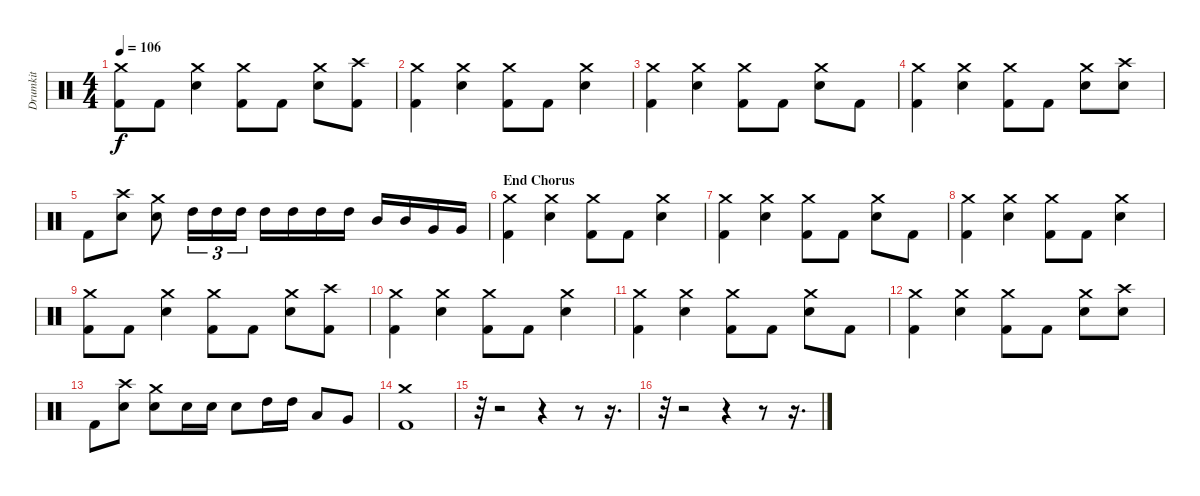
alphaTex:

\track ("Drumkit" "Drumkit") {instrument percussion}
\staff {score}
\articulation defaults
\ts (4 4)
\tempo 106
\clef neutral
\ks c
("Crash medium (hit)" "Kick (hit) 2").8{dy f} "Kick (hit) 2".8 ("Crash medium (hit)" "Snare (hit) 2").4 ("Crash medium (hit)" "Kick (hit) 2").8 "Kick (hit) 2".8 ("Crash medium (hit)" "Snare (hit) 2").8 ("Crash high (hit)" "Kick (hit) 2").8 |
("Crash medium (hit)" "Kick (hit) 2").4 ("Crash medium (hit)" "Snare (hit) 2").4 ("Crash medium (hit)" "Kick (hit) 2").8 "Kick (hit) 2".8 ("Crash medium (hit)" "Snare (hit) 2").4 |
("Crash medium (hit)" "Kick (hit) 2").4 ("Crash medium (hit)" "Snare (hit) 2").4 ("Crash medium (hit)" "Kick (hit) 2").8 "Kick (hit) 2".8 ("Crash medium (hit)" "Snare (hit) 2").8 "Kick (hit) 2".8 |
("Crash medium (hit)" "Kick (hit) 2").4 ("Crash medium (hit)" "Snare (hit) 2").4 ("Crash medium (hit)" "Kick (hit) 2").8 "Kick (hit) 2".8 ("Crash medium (hit)" "Snare (hit) 2").8 ("Crash high (hit)" "Snare (hit) 2").8 |
"Kick (hit) 2".8 ("Crash high (hit)" "Snare (hit) 2").8 ("Crash medium (hit)" "Snare (hit) 2").8 "High Tom (hit)".16{tu (3 2)} "High Tom (hit)".16{tu (3 2)} "High Tom (hit)".16{tu (3 2)} "High Tom (hit)".16 "High Tom (hit)".16 "High Tom (hit)".16 "High Tom (hit)".16 "Mid Tom (hit)".16 "Mid Tom (hit)".16 "Very Low Tom (hit)".16 "Very Low Tom (hit)".16 |
\section ("" "End Chorus")
("Crash medium (hit)" "Kick (hit) 2").4 ("Crash medium (hit)" "Snare (hit) 2").4 ("Crash medium (hit)" "Kick (hit) 2").8 "Kick (hit) 2".8 ("Crash medium (hit)" "Snare (hit) 2").4 |
("Crash medium (hit)" "Kick (hit) 2").4 ("Crash medium (hit)" "Snare (hit) 2").4 ("Crash medium (hit)" "Kick (hit) 2").8 "Kick (hit) 2".8 ("Crash medium (hit)" "Snare (hit) 2").8 "Kick (hit) 2".8 |
("Crash medium (hit)" "Kick (hit) 2").4 ("Crash medium (hit)" "Snare (hit) 2").4 ("Crash medium (hit)" "Kick (hit) 2").8 "Kick (hit) 2".8 ("Crash medium (hit)" "Snare (hit) 2").4 |
("Crash medium (hit)" "Kick (hit) 2").8 "Kick (hit) 2".8 ("Crash medium (hit)" "Snare (hit) 2").4 ("Crash medium (hit)" "Kick (hit) 2").8 "Kick (hit) 2".8 ("Crash medium (hit)" "Snare (hit) 2").8 ("Crash high (hit)" "Kick (hit) 2").8 |
("Crash medium (hit)" "Kick (hit) 2").4 ("Crash medium (hit)" "Snare (hit) 2").4 ("Crash medium (hit)" "Kick (hit) 2").8 "Kick (hit) 2".8 ("Crash medium (hit)" "Snare (hit) 2").4 |
("Crash medium (hit)" "Kick (hit) 2").4 ("Crash medium (hit)" "Snare (hit) 2").4 ("Crash medium (hit)" "Kick (hit) 2").8 "Kick (hit) 2".8 ("Crash medium (hit)" "Snare (hit) 2").8 "Kick (hit) 2".8 |
("Crash medium (hit)" "Kick (hit) 2").4 ("Crash medium (hit)" "Snare (hit) 2").4 ("Crash medium (hit)" "Kick (hit) 2").8 "Kick (hit) 2".8 ("Crash medium (hit)" "Snare (hit) 2").8 ("Crash high (hit)" "Snare (hit) 2").8 |
"Kick (hit) 2".8 ("Crash high (hit)" "Snare (hit) 2").8 ("Crash medium (hit)" "Snare (hit) 2").8 "Snare (hit) 2".16 "Snare (hit) 2".16 "Snare (hit) 2".8 "High Tom (hit)".16 "High Tom (hit)".16 "Low Tom (hit)".8 "Very Low Tom (hit)".8 |
("Crash medium (hit)" "Kick (hit) 2").1 |
r.32 r.2 r.4 r.8 r.16{d} |
r.32 r.2 r.4 r.8 r.16{d}
